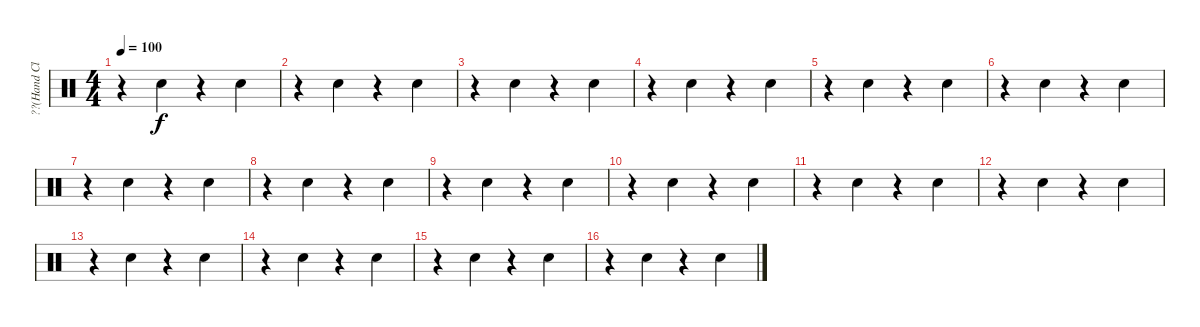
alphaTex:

\track ("??(Hand Clap)" "??(Hand Cl") {instrument percussion}
\staff {score}
\articulation defaults
\ts (4 4)
\tempo 100
\clef neutral
\ks c
r.4{dy f} "Hand Clap (hit)".4 r.4 "Hand Clap (hit)".4 |
r.4 "Hand Clap (hit)".4 r.4 "Hand Clap (hit)".4 |
r.4 "Hand Clap (hit)".4 r.4 "Hand Clap (hit)".4 |
r.4 "Hand Clap (hit)".4 r.4 "Hand Clap (hit)".4 |
r.4 "Hand Clap (hit)".4 r.4 "Hand Clap (hit)".4 |
r.4 "Hand Clap (hit)".4 r.4 "Hand Clap (hit)".4 |
r.4 "Hand Clap (hit)".4 r.4 "Hand Clap (hit)".4 |
r.4 "Hand Clap (hit)".4 r.4 "Hand Clap (hit)".4 |
r.4 "Hand Clap (hit)".4 r.4 "Hand Clap (hit)".4 |
r.4 "Hand Clap (hit)".4 r.4 "Hand Clap (hit)".4 |
r.4 "Hand Clap (hit)".4 r.4 "Hand Clap (hit)".4 |
r.4 "Hand Clap (hit)".4 r.4 "Hand Clap (hit)".4 |
r.4 "Hand Clap (hit)".4 r.4 "Hand Clap (hit)".4 |
r.4 "Hand Clap (hit)".4 r.4 "Hand Clap (hit)".4 |
r.4 "Hand Clap (hit)".4 r.4 "Hand Clap (hit)".4 |
r.4 "Hand Clap (hit)".4 r.4 "Hand Clap (hit)".4
